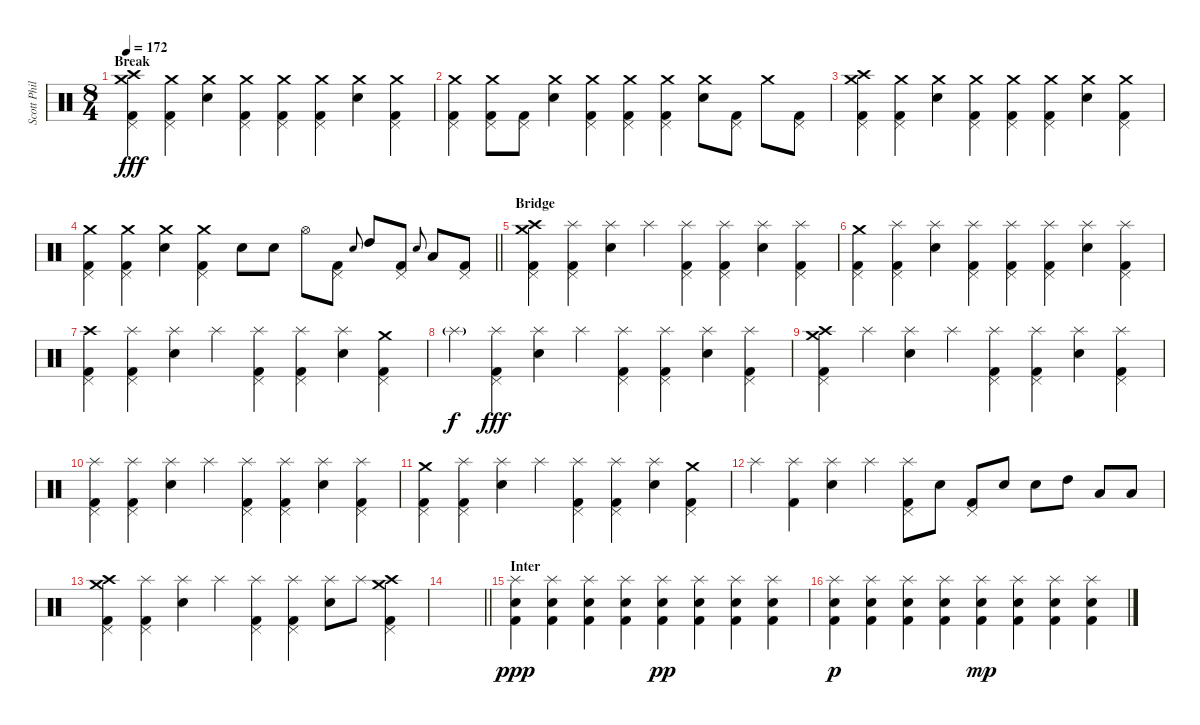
\track ("Scott Phillips [Drums]" "Scott Phil") {instrument percussion}
\staff {score}
\articulation defaults
\ts (8 4)
\section ("" "Break")
\tempo 172
\clef neutral
\ks c
("Crash high (hit)" "Crash medium (hit)" "Pedal Hi-Hat (hit)" "Kick (hit) 2").4{dy fff} ("Crash medium (hit)" "Pedal Hi-Hat (hit)" "Kick (hit) 2").4 ("Crash medium (hit)" "Electric Snare (hit)").4 ("Crash medium (hit)" "Pedal Hi-Hat (hit)" "Kick (hit) 2").4 ("Crash medium (hit)" "Pedal Hi-Hat (hit)" "Kick (hit) 2").4 ("Crash medium (hit)" "Pedal Hi-Hat (hit)" "Kick (hit) 2").4 ("Crash medium (hit)" "Electric Snare (hit)").4 ("Crash medium (hit)" "Pedal Hi-Hat (hit)" "Kick (hit) 2").4 |
("Crash medium (hit)" "Pedal Hi-Hat (hit)" "Kick (hit) 2").4 ("Crash medium (hit)" "Pedal Hi-Hat (hit)" "Kick (hit) 2").8 ("Pedal Hi-Hat (hit)" "Kick (hit) 2").8 ("Crash medium (hit)" "Electric Snare (hit)").4 ("Crash medium (hit)" "Pedal Hi-Hat (hit)" "Kick (hit) 2").4 ("Crash medium (hit)" "Pedal Hi-Hat (hit)" "Kick (hit) 2").4 ("Crash medium (hit)" "Pedal Hi-Hat (hit)" "Kick (hit) 2").4 ("Crash medium (hit)" "Electric Snare (hit)").8 ("Pedal Hi-Hat (hit)" "Kick (hit) 2").8 "Crash medium (hit)".8 ("Pedal Hi-Hat (hit)" "Kick (hit) 2").8 |
("Crash high (hit)" "Crash medium (hit)" "Pedal Hi-Hat (hit)" "Kick (hit) 2").4 ("Crash medium (hit)" "Pedal Hi-Hat (hit)" "Kick (hit) 2").4 ("Crash medium (hit)" "Electric Snare (hit)").4 ("Crash medium (hit)" "Pedal Hi-Hat (hit)" "Kick (hit) 2").4 ("Crash medium (hit)" "Pedal Hi-Hat (hit)" "Kick (hit) 2").4 ("Crash medium (hit)" "Pedal Hi-Hat (hit)" "Kick (hit) 2").4 ("Crash medium (hit)" "Electric Snare (hit)").4 ("Crash medium (hit)" "Pedal Hi-Hat (hit)" "Kick (hit) 2").4 |
\barLineRight lightlight
("Crash medium (hit)" "Pedal Hi-Hat (hit)" "Kick (hit) 2").4 ("Crash medium (hit)" "Pedal Hi-Hat (hit)" "Kick (hit) 2").4 ("Crash medium (hit)" "Electric Snare (hit)").4 ("Crash medium (hit)" "Pedal Hi-Hat (hit)" "Kick (hit) 2").4 "Electric Snare (hit)".8 "Electric Snare (hit)".8 "Hi-Hat (open)".8 ("Pedal Hi-Hat (hit)" "Kick (hit) 2").8 "Electric Snare (hit)".8{gr onbeat} "High Tom (hit)".8 ("Pedal Hi-Hat (hit)" "Kick (hit) 2").8 "Electric Snare (hit)".8{gr onbeat} "Low Floor Tom (hit)".8 ("Pedal Hi-Hat (hit)" "Kick (hit) 2").8 |
\section ("" "Bridge")
("Crash high (hit)" "Crash medium (hit)" "Pedal Hi-Hat (hit)" "Kick (hit) 2").4 ("Splash (hit)" "Pedal Hi-Hat (hit)" "Kick (hit) 2").4 ("Splash (hit)" "Electric Snare (hit)").4 "Splash (hit)".4 ("Splash (hit)" "Pedal Hi-Hat (hit)" "Kick (hit) 2").4 ("Splash (hit)" "Pedal Hi-Hat (hit)" "Kick (hit) 2").4 ("Splash (hit)" "Electric Snare (hit)").4 ("Splash (hit)" "Pedal Hi-Hat (hit)" "Kick (hit) 2").4 |
("Crash medium (hit)" "Pedal Hi-Hat (hit)" "Kick (hit) 2").4 ("Splash (hit)" "Pedal Hi-Hat (hit)" "Kick (hit) 2").4 ("Splash (hit)" "Electric Snare (hit)").4 ("Splash (hit)" "Pedal Hi-Hat (hit)" "Kick (hit) 2").4 ("Splash (hit)" "Pedal Hi-Hat (hit)" "Kick (hit) 2").4 ("Splash (hit)" "Pedal Hi-Hat (hit)" "Kick (hit) 2").4 ("Splash (hit)" "Electric Snare (hit)").4 ("Splash (hit)" "Pedal Hi-Hat (hit)" "Kick (hit) 2").4 |
("Crash high (hit)" "Pedal Hi-Hat (hit)" "Kick (hit) 2").4 ("Splash (hit)" "Pedal Hi-Hat (hit)" "Kick (hit) 2").4 ("Splash (hit)" "Electric Snare (hit)").4 "Splash (hit)".4 ("Splash (hit)" "Pedal Hi-Hat (hit)" "Kick (hit) 2").4 ("Splash (hit)" "Pedal Hi-Hat (hit)" "Kick (hit) 2").4 ("Splash (hit)" "Electric Snare (hit)").4 ("Crash medium (hit)" "Pedal Hi-Hat (hit)" "Kick (hit) 2").4 |
"Splash (hit)"{g}.4{dy f} ("Splash (hit)" "Pedal Hi-Hat (hit)" "Kick (hit) 2").4{dy fff} ("Splash (hit)" "Electric Snare (hit)").4 "Splash (hit)".4 ("Splash (hit)" "Pedal Hi-Hat (hit)" "Kick (hit) 2").4 ("Splash (hit)" "Pedal Hi-Hat (hit)" "Kick (hit) 2").4 ("Splash (hit)" "Electric Snare (hit)").4 ("Splash (hit)" "Pedal Hi-Hat (hit)" "Kick (hit) 2").4 |
("Crash high (hit)" "Crash medium (hit)" "Pedal Hi-Hat (hit)" "Kick (hit) 2").4 "Splash (hit)".4 ("Splash (hit)" "Electric Snare (hit)").4 "Splash (hit)".4 ("Splash (hit)" "Pedal Hi-Hat (hit)" "Kick (hit) 2").4 ("Splash (hit)" "Pedal Hi-Hat (hit)" "Kick (hit) 2").4 ("Splash (hit)" "Electric Snare (hit)").4 ("Splash (hit)" "Pedal Hi-Hat (hit)" "Kick (hit) 2").4 |
("Splash (hit)" "Pedal Hi-Hat (hit)" "Kick (hit) 2").4 ("Splash (hit)" "Pedal Hi-Hat (hit)" "Kick (hit) 2").4 ("Splash (hit)" "Electric Snare (hit)").4 "Splash (hit)".4 ("Splash (hit)" "Pedal Hi-Hat (hit)" "Kick (hit) 2").4 ("Splash (hit)" "Pedal Hi-Hat (hit)" "Kick (hit) 2").4 ("Splash (hit)" "Electric Snare (hit)").4 ("Splash (hit)" "Pedal Hi-Hat (hit)" "Kick (hit) 2").4 |
("Crash medium (hit)" "Pedal Hi-Hat (hit)" "Kick (hit) 2").4 ("Splash (hit)" "Pedal Hi-Hat (hit)" "Kick (hit) 2").4 ("Splash (hit)" "Electric Snare (hit)").4 "Splash (hit)".4 ("Splash (hit)" "Pedal Hi-Hat (hit)" "Kick (hit) 2").4 ("Splash (hit)" "Pedal Hi-Hat (hit)" "Kick (hit) 2").4 ("Splash (hit)" "Electric Snare (hit)").4 ("Crash medium (hit)" "Pedal Hi-Hat (hit)" "Kick (hit) 2").4 |
"Splash (hit)".4 ("Splash (hit)" "Kick (hit) 2").4 ("Splash (hit)" "Electric Snare (hit)").4 "Splash (hit)".4 ("Splash (hit)" "Pedal Hi-Hat (hit)" "Kick (hit) 2").8 "Electric Snare (hit)".8 ("Pedal Hi-Hat (hit)" "Kick (hit) 2").8 "Electric Snare (hit)".8 "Electric Snare (hit)".8 "High Tom (hit)".8 "Low Tom (hit)".8 "Low Floor Tom (hit)".8 |
("Crash high (hit)" "Crash medium (hit)" "Pedal Hi-Hat (hit)" "Kick (hit) 2").4 ("Splash (hit)" "Pedal Hi-Hat (hit)" "Kick (hit) 2").4 ("Splash (hit)" "Electric Snare (hit)").4 "Splash (hit)".4 ("Splash (hit)" "Pedal Hi-Hat (hit)" "Kick (hit) 2").4 ("Splash (hit)" "Pedal Hi-Hat (hit)" "Kick (hit) 2").4 ("Splash (hit)" "Electric Snare (hit)").8 "Splash (hit)".8 ("Crash high (hit)" "Crash medium (hit)" "Pedal Hi-Hat (hit)" "Kick (hit) 2").4 |
\barLineRight lightlight
|
\section ("" "Inter")
("Splash (hit)" "Electric Snare (hit)" "Kick (hit) 2").4{dy ppp} ("Splash (hit)" "Electric Snare (hit)" "Kick (hit) 2").4 ("Splash (hit)" "Electric Snare (hit)" "Kick (hit) 2").4 ("Splash (hit)" "Electric Snare (hit)" "Kick (hit) 2").4 ("Splash (hit)" "Electric Snare (hit)" "Kick (hit) 2").4{dy pp} ("Splash (hit)" "Electric Snare (hit)" "Kick (hit) 2").4 ("Splash (hit)" "Electric Snare (hit)" "Kick (hit) 2").4 ("Splash (hit)" "Electric Snare (hit)" "Kick (hit) 2").4 |
("Splash (hit)" "Electric Snare (hit)" "Kick (hit) 2").4{dy p} ("Splash (hit)" "Electric Snare (hit)" "Kick (hit) 2").4 ("Splash (hit)" "Electric Snare (hit)" "Kick (hit) 2").4 ("Splash (hit)" "Electric Snare (hit)" "Kick (hit) 2").4 ("Splash (hit)" "Electric Snare (hit)" "Kick (hit) 2").4{dy mp} ("Splash (hit)" "Electric Snare (hit)" "Kick (hit) 2").4 ("Splash (hit)" "Electric Snare (hit)" "Kick (hit) 2").4 ("Splash (hit)" "Electric Snare (hit)" "Kick (hit) 2").4
